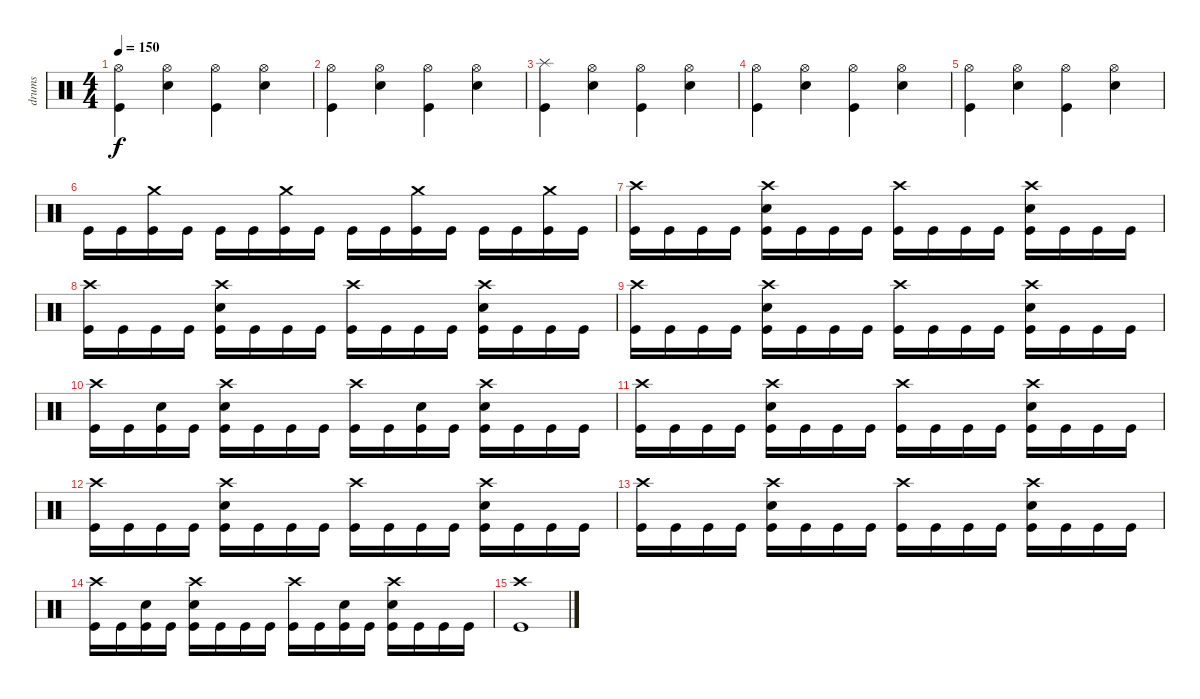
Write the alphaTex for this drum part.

\track ("drums" "drums") {instrument percussion}
\staff {score}
\articulation defaults
\ts (4 4)
\tempo 150
\clef neutral
\ks c
("Hi-Hat (open)" "Kick (hit)").4{dy f} ("Hi-Hat (open)" "Electric Snare (hit)").4 ("Hi-Hat (open)" "Kick (hit)").4 ("Hi-Hat (open)" "Electric Snare (hit)").4 |
("Hi-Hat (open)" "Kick (hit)").4 ("Hi-Hat (open)" "Electric Snare (hit)").4 ("Hi-Hat (open)" "Kick (hit)").4 ("Hi-Hat (open)" "Electric Snare (hit)").4 |
("Splash (hit)" "Kick (hit)").4 ("Hi-Hat (open)" "Electric Snare (hit)").4 ("Hi-Hat (open)" "Kick (hit)").4 ("Hi-Hat (open)" "Electric Snare (hit)").4 |
("Hi-Hat (open)" "Kick (hit)").4 ("Hi-Hat (open)" "Electric Snare (hit)").4 ("Hi-Hat (open)" "Kick (hit)").4 ("Hi-Hat (open)" "Electric Snare (hit)").4 |
("Hi-Hat (open)" "Kick (hit)").4 ("Hi-Hat (open)" "Electric Snare (hit)").4 ("Hi-Hat (open)" "Kick (hit)").4 ("Hi-Hat (open)" "Electric Snare (hit)").4 |
"Kick (hit)".16 "Kick (hit)".16 ("Crash medium (hit)" "Kick (hit)").16 "Kick (hit)".16 "Kick (hit)".16 "Kick (hit)".16 ("Crash medium (hit)" "Kick (hit)").16 "Kick (hit)".16 "Kick (hit)".16 "Kick (hit)".16 ("Crash medium (hit)" "Kick (hit)").16 "Kick (hit)".16 "Kick (hit)".16 "Kick (hit)".16 ("Crash medium (hit)" "Kick (hit)").16 "Kick (hit)".16 |
("Crash high (hit)" "Kick (hit)").16 "Kick (hit)".16 "Kick (hit)".16 "Kick (hit)".16 ("Crash high (hit)" "Electric Snare (hit)" "Kick (hit)").16 "Kick (hit)".16 "Kick (hit)".16 "Kick (hit)".16 ("Crash high (hit)" "Kick (hit)").16 "Kick (hit)".16 "Kick (hit)".16 "Kick (hit)".16 ("Crash high (hit)" "Electric Snare (hit)" "Kick (hit)").16 "Kick (hit)".16 "Kick (hit)".16 "Kick (hit)".16 |
("Crash high (hit)" "Kick (hit)").16 "Kick (hit)".16 "Kick (hit)".16 "Kick (hit)".16 ("Crash high (hit)" "Electric Snare (hit)" "Kick (hit)").16 "Kick (hit)".16 "Kick (hit)".16 "Kick (hit)".16 ("Crash high (hit)" "Kick (hit)").16 "Kick (hit)".16 "Kick (hit)".16 "Kick (hit)".16 ("Crash high (hit)" "Electric Snare (hit)" "Kick (hit)").16 "Kick (hit)".16 "Kick (hit)".16 "Kick (hit)".16 |
("Crash high (hit)" "Kick (hit)").16 "Kick (hit)".16 "Kick (hit)".16 "Kick (hit)".16 ("Crash high (hit)" "Electric Snare (hit)" "Kick (hit)").16 "Kick (hit)".16 "Kick (hit)".16 "Kick (hit)".16 ("Crash high (hit)" "Kick (hit)").16 "Kick (hit)".16 "Kick (hit)".16 "Kick (hit)".16 ("Crash high (hit)" "Electric Snare (hit)" "Kick (hit)").16 "Kick (hit)".16 "Kick (hit)".16 "Kick (hit)".16 |
("Crash high (hit)" "Kick (hit)").16 "Kick (hit)".16 ("Electric Snare (hit)" "Kick (hit)").16 "Kick (hit)".16 ("Crash high (hit)" "Electric Snare (hit)" "Kick (hit)").16 "Kick (hit)".16 "Kick (hit)".16 "Kick (hit)".16 ("Crash high (hit)" "Kick (hit)").16 "Kick (hit)".16 ("Electric Snare (hit)" "Kick (hit)").16 "Kick (hit)".16 ("Crash high (hit)" "Electric Snare (hit)" "Kick (hit)").16 "Kick (hit)".16 "Kick (hit)".16 "Kick (hit)".16 |
("Crash high (hit)" "Kick (hit)").16 "Kick (hit)".16 "Kick (hit)".16 "Kick (hit)".16 ("Crash high (hit)" "Electric Snare (hit)" "Kick (hit)").16 "Kick (hit)".16 "Kick (hit)".16 "Kick (hit)".16 ("Crash high (hit)" "Kick (hit)").16 "Kick (hit)".16 "Kick (hit)".16 "Kick (hit)".16 ("Crash high (hit)" "Electric Snare (hit)" "Kick (hit)").16 "Kick (hit)".16 "Kick (hit)".16 "Kick (hit)".16 |
("Crash high (hit)" "Kick (hit)").16 "Kick (hit)".16 "Kick (hit)".16 "Kick (hit)".16 ("Crash high (hit)" "Electric Snare (hit)" "Kick (hit)").16 "Kick (hit)".16 "Kick (hit)".16 "Kick (hit)".16 ("Crash high (hit)" "Kick (hit)").16 "Kick (hit)".16 "Kick (hit)".16 "Kick (hit)".16 ("Crash high (hit)" "Electric Snare (hit)" "Kick (hit)").16 "Kick (hit)".16 "Kick (hit)".16 "Kick (hit)".16 |
("Crash high (hit)" "Kick (hit)").16 "Kick (hit)".16 "Kick (hit)".16 "Kick (hit)".16 ("Crash high (hit)" "Electric Snare (hit)" "Kick (hit)").16 "Kick (hit)".16 "Kick (hit)".16 "Kick (hit)".16 ("Crash high (hit)" "Kick (hit)").16 "Kick (hit)".16 "Kick (hit)".16 "Kick (hit)".16 ("Crash high (hit)" "Electric Snare (hit)" "Kick (hit)").16 "Kick (hit)".16 "Kick (hit)".16 "Kick (hit)".16 |
("Crash high (hit)" "Kick (hit)").16 "Kick (hit)".16 ("Electric Snare (hit)" "Kick (hit)").16 "Kick (hit)".16 ("Crash high (hit)" "Electric Snare (hit)" "Kick (hit)").16 "Kick (hit)".16 "Kick (hit)".16 "Kick (hit)".16 ("Crash high (hit)" "Kick (hit)").16 "Kick (hit)".16 ("Electric Snare (hit)" "Kick (hit)").16 "Kick (hit)".16 ("Crash high (hit)" "Electric Snare (hit)" "Kick (hit)").16 "Kick (hit)".16 "Kick (hit)".16 "Kick (hit)".16 |
("Crash high (hit)" "Kick (hit)").1
